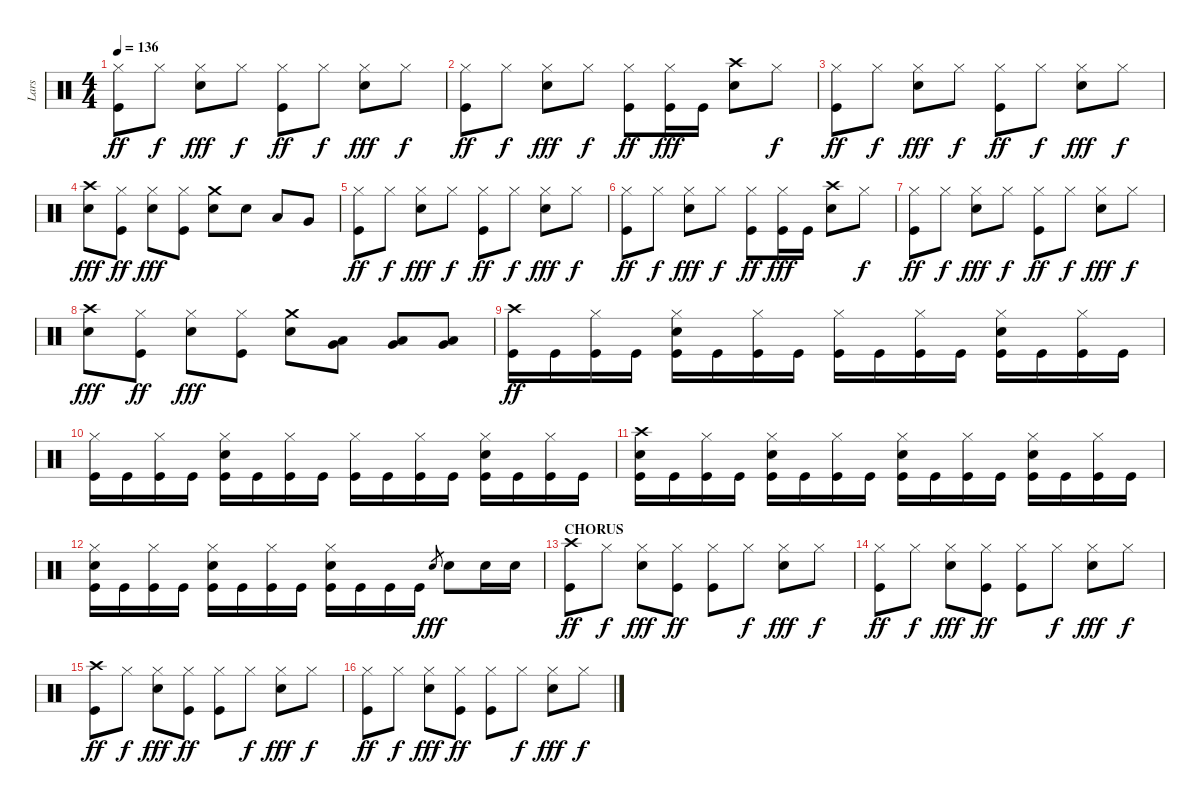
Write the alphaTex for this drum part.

\track ("Lars" "Lars") {instrument percussion}
\staff {score}
\articulation defaults
\ts (4 4)
\tempo 136
\clef neutral
\ks c
("Hi-Hat (closed)" "Kick (hit)").8{dy ff} "Hi-Hat (closed)".8{dy f} ("Hi-Hat (closed)" "Electric Snare (hit)").8{dy fff} "Hi-Hat (closed)".8{dy f} ("Hi-Hat (closed)" "Kick (hit)").8{dy ff} "Hi-Hat (closed)".8{dy f} ("Hi-Hat (closed)" "Electric Snare (hit)").8{dy fff} "Hi-Hat (closed)".8{dy f} |
("Hi-Hat (closed)" "Kick (hit)").8{dy ff} "Hi-Hat (closed)".8{dy f} ("Hi-Hat (closed)" "Electric Snare (hit)").8{dy fff} "Hi-Hat (closed)".8{dy f} ("Hi-Hat (closed)" "Kick (hit)").8{dy ff} ("Hi-Hat (closed)" "Kick (hit)").16{dy fff} "Kick (hit)".16 ("Crash high (hit)" "Electric Snare (hit)").8 "Hi-Hat (closed)".8{dy f} |
("Hi-Hat (closed)" "Kick (hit)").8{dy ff} "Hi-Hat (closed)".8{dy f} ("Hi-Hat (closed)" "Electric Snare (hit)").8{dy fff} "Hi-Hat (closed)".8{dy f} ("Hi-Hat (closed)" "Kick (hit)").8{dy ff} "Hi-Hat (closed)".8{dy f} ("Hi-Hat (closed)" "Electric Snare (hit)").8{dy fff} "Hi-Hat (closed)".8{dy f} |
("Crash high (hit)" "Electric Snare (hit)").8{dy fff} ("Hi-Hat (closed)" "Kick (hit)").8{dy ff} ("Hi-Hat (closed)" "Electric Snare (hit)").8{dy fff} ("Hi-Hat (closed)" "Kick (hit)").8 ("Crash medium (hit)" "Electric Snare (hit)").8 "Electric Snare (hit)".8 "Low Tom (hit)".8 "Very Low Tom (hit)".8 |
("Hi-Hat (closed)" "Kick (hit)").8{dy ff} "Hi-Hat (closed)".8{dy f} ("Hi-Hat (closed)" "Electric Snare (hit)").8{dy fff} "Hi-Hat (closed)".8{dy f} ("Hi-Hat (closed)" "Kick (hit)").8{dy ff} "Hi-Hat (closed)".8{dy f} ("Hi-Hat (closed)" "Electric Snare (hit)").8{dy fff} "Hi-Hat (closed)".8{dy f} |
("Hi-Hat (closed)" "Kick (hit)").8{dy ff} "Hi-Hat (closed)".8{dy f} ("Hi-Hat (closed)" "Electric Snare (hit)").8{dy fff} "Hi-Hat (closed)".8{dy f} ("Hi-Hat (closed)" "Kick (hit)").8{dy ff} ("Hi-Hat (closed)" "Kick (hit)").16{dy fff} "Kick (hit)".16 ("Crash high (hit)" "Electric Snare (hit)").8 "Hi-Hat (closed)".8{dy f} |
("Hi-Hat (closed)" "Kick (hit)").8{dy ff} "Hi-Hat (closed)".8{dy f} ("Hi-Hat (closed)" "Electric Snare (hit)").8{dy fff} "Hi-Hat (closed)".8{dy f} ("Hi-Hat (closed)" "Kick (hit)").8{dy ff} "Hi-Hat (closed)".8{dy f} ("Hi-Hat (closed)" "Electric Snare (hit)").8{dy fff} "Hi-Hat (closed)".8{dy f} |
("Crash high (hit)" "Electric Snare (hit)").8{dy fff} ("Hi-Hat (closed)" "Kick (hit)").8{dy ff} ("Hi-Hat (closed)" "Electric Snare (hit)").8{dy fff} ("Hi-Hat (closed)" "Kick (hit)").8 ("Crash medium (hit)" "Electric Snare (hit)").8 ("Low Tom (hit)" "Very Low Tom (hit)").8 ("Low Tom (hit)" "Very Low Tom (hit)").8 ("Low Tom (hit)" "Very Low Tom (hit)").8 |
("Crash high (hit)" "Kick (hit)").16{dy ff} "Kick (hit)".16 ("Hi-Hat (closed)" "Kick (hit)").16 "Kick (hit)".16 ("Hi-Hat (closed)" "Electric Snare (hit)" "Kick (hit)").16 "Kick (hit)".16 ("Hi-Hat (closed)" "Kick (hit)").16 "Kick (hit)".16 ("Hi-Hat (closed)" "Kick (hit)").16 "Kick (hit)".16 ("Hi-Hat (closed)" "Kick (hit)").16 "Kick (hit)".16 ("Hi-Hat (closed)" "Electric Snare (hit)" "Kick (hit)").16 "Kick (hit)".16 ("Hi-Hat (closed)" "Kick (hit)").16 "Kick (hit)".16 |
("Hi-Hat (closed)" "Kick (hit)").16 "Kick (hit)".16 ("Hi-Hat (closed)" "Kick (hit)").16 "Kick (hit)".16 ("Hi-Hat (closed)" "Electric Snare (hit)" "Kick (hit)").16 "Kick (hit)".16 ("Hi-Hat (closed)" "Kick (hit)").16 "Kick (hit)".16 ("Hi-Hat (closed)" "Kick (hit)").16 "Kick (hit)".16 ("Hi-Hat (closed)" "Kick (hit)").16 "Kick (hit)".16 ("Hi-Hat (closed)" "Electric Snare (hit)" "Kick (hit)").16 "Kick (hit)".16 ("Hi-Hat (closed)" "Kick (hit)").16 "Kick (hit)".16 |
("Crash high (hit)" "Electric Snare (hit)" "Kick (hit)").16 "Kick (hit)".16 ("Hi-Hat (closed)" "Kick (hit)").16 "Kick (hit)".16 ("Hi-Hat (closed)" "Electric Snare (hit)" "Kick (hit)").16 "Kick (hit)".16 ("Hi-Hat (closed)" "Kick (hit)").16 "Kick (hit)".16 ("Hi-Hat (closed)" "Electric Snare (hit)" "Kick (hit)").16 "Kick (hit)".16 ("Hi-Hat (closed)" "Kick (hit)").16 "Kick (hit)".16 ("Hi-Hat (closed)" "Electric Snare (hit)" "Kick (hit)").16 "Kick (hit)".16 ("Hi-Hat (closed)" "Kick (hit)").16 "Kick (hit)".16 |
("Hi-Hat (closed)" "Electric Snare (hit)" "Kick (hit)").16 "Kick (hit)".16 ("Hi-Hat (closed)" "Kick (hit)").16 "Kick (hit)".16 ("Hi-Hat (closed)" "Electric Snare (hit)" "Kick (hit)").16 "Kick (hit)".16 ("Hi-Hat (closed)" "Kick (hit)").16 "Kick (hit)".16 ("Hi-Hat (closed)" "Electric Snare (hit)" "Kick (hit)").16 "Kick (hit)".16 "Kick (hit)".16 "Kick (hit)".16 "Electric Snare (hit)".8{gr dy fff} "Electric Snare (hit)".8 "Electric Snare (hit)".16 "Electric Snare (hit)".16 |
\section ("" "CHORUS")
("Crash high (hit)" "Kick (hit)").8{dy ff} "Hi-Hat (closed)".8{dy f} ("Hi-Hat (closed)" "Electric Snare (hit)").8{dy fff} ("Hi-Hat (closed)" "Kick (hit)").8{dy ff} ("Hi-Hat (closed)" "Kick (hit)").8 "Hi-Hat (closed)".8{dy f} ("Hi-Hat (closed)" "Electric Snare (hit)").8{dy fff} "Hi-Hat (closed)".8{dy f} |
("Hi-Hat (closed)" "Kick (hit)").8{dy ff} "Hi-Hat (closed)".8{dy f} ("Hi-Hat (closed)" "Electric Snare (hit)").8{dy fff} ("Hi-Hat (closed)" "Kick (hit)").8{dy ff} ("Hi-Hat (closed)" "Kick (hit)").8 "Hi-Hat (closed)".8{dy f} ("Hi-Hat (closed)" "Electric Snare (hit)").8{dy fff} "Hi-Hat (closed)".8{dy f} |
("Crash high (hit)" "Kick (hit)").8{dy ff} "Hi-Hat (closed)".8{dy f} ("Hi-Hat (closed)" "Electric Snare (hit)").8{dy fff} ("Hi-Hat (closed)" "Kick (hit)").8{dy ff} ("Hi-Hat (closed)" "Kick (hit)").8 "Hi-Hat (closed)".8{dy f} ("Hi-Hat (closed)" "Electric Snare (hit)").8{dy fff} "Hi-Hat (closed)".8{dy f} |
("Hi-Hat (closed)" "Kick (hit)").8{dy ff} "Hi-Hat (closed)".8{dy f} ("Hi-Hat (closed)" "Electric Snare (hit)").8{dy fff} ("Hi-Hat (closed)" "Kick (hit)").8{dy ff} ("Hi-Hat (closed)" "Kick (hit)").8 "Hi-Hat (closed)".8{dy f} ("Hi-Hat (closed)" "Electric Snare (hit)").8{dy fff} "Hi-Hat (closed)".8{dy f}
